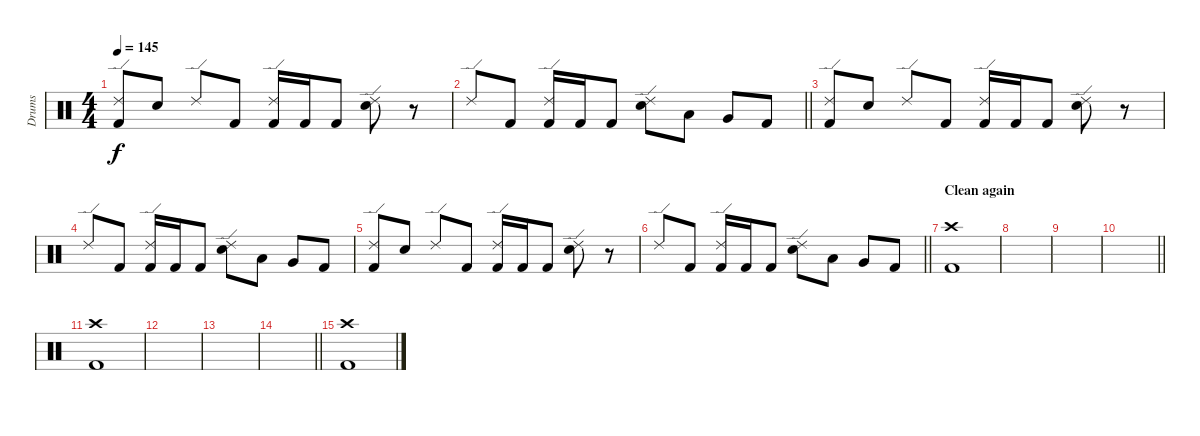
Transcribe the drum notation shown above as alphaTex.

\track ("Drums" "Drums") {mute instrument percussion}
\staff {score}
\articulation defaults
\ts (4 4)
\tempo 145
\clef neutral
\ks c
("Ride (edge) 2" "Kick (hit) 2").8{dy f} "Electric Snare (hit)".8 "Ride (edge) 2".8 "Kick (hit) 2".8 ("Ride (edge) 2" "Kick (hit) 2").16 "Kick (hit) 2".16 "Kick (hit) 2".8 ("Ride (edge) 2" "Electric Snare (hit)").8 r.8 |
\barLineRight lightlight "Ride (edge) 2".8 "Kick (hit) 2".8
("Ride (edge) 2" "Kick (hit) 2").16 "Kick (hit) 2".16 "Kick (hit) 2".8 ("Ride (edge) 2" "Electric Snare (hit)").8 "Low Tom (hit)".8 "Very Low Tom (hit)".8 "Kick (hit) 2".8 |
("Ride (edge) 2" "Kick (hit) 2").8 "Electric Snare (hit)".8 "Ride (edge) 2".8 "Kick (hit) 2".8 ("Ride (edge) 2" "Kick (hit) 2").16 "Kick (hit) 2".16 "Kick (hit) 2".8 ("Ride (edge) 2" "Electric Snare (hit)").8 r.8 |
"Ride (edge) 2".8 "Kick (hit) 2".8 ("Ride (edge) 2" "Kick (hit) 2").16 "Kick (hit) 2".16 "Kick (hit) 2".8 ("Ride (edge) 2" "Electric Snare (hit)").8 "Low Tom (hit)".8 "Very Low Tom (hit)".8 "Kick (hit) 2".8 |
("Ride (edge) 2" "Kick (hit) 2").8 "Electric Snare (hit)".8 "Ride (edge) 2".8 "Kick (hit) 2".8 ("Ride (edge) 2" "Kick (hit) 2").16 "Kick (hit) 2".16 "Kick (hit) 2".8 ("Ride (edge) 2" "Electric Snare (hit)").8 r.8 |
\barLineRight lightlight "Ride (edge) 2".8 "Kick (hit) 2".8
("Ride (edge) 2" "Kick (hit) 2").16 "Kick (hit) 2".16 "Kick (hit) 2".8 ("Ride (edge) 2" "Electric Snare (hit)").8 "Low Tom (hit)".8 "Very Low Tom (hit)".8 "Kick (hit) 2".8 |
\section ("" "Clean again")
("Crash high (hit)" "Kick (hit) 2").1 |
|
|
\barLineRight lightlight
|
("Crash high (hit)" "Kick (hit) 2").1 |
|
|
\barLineRight lightlight
|
("Crash high (hit)" "Kick (hit) 2").1
